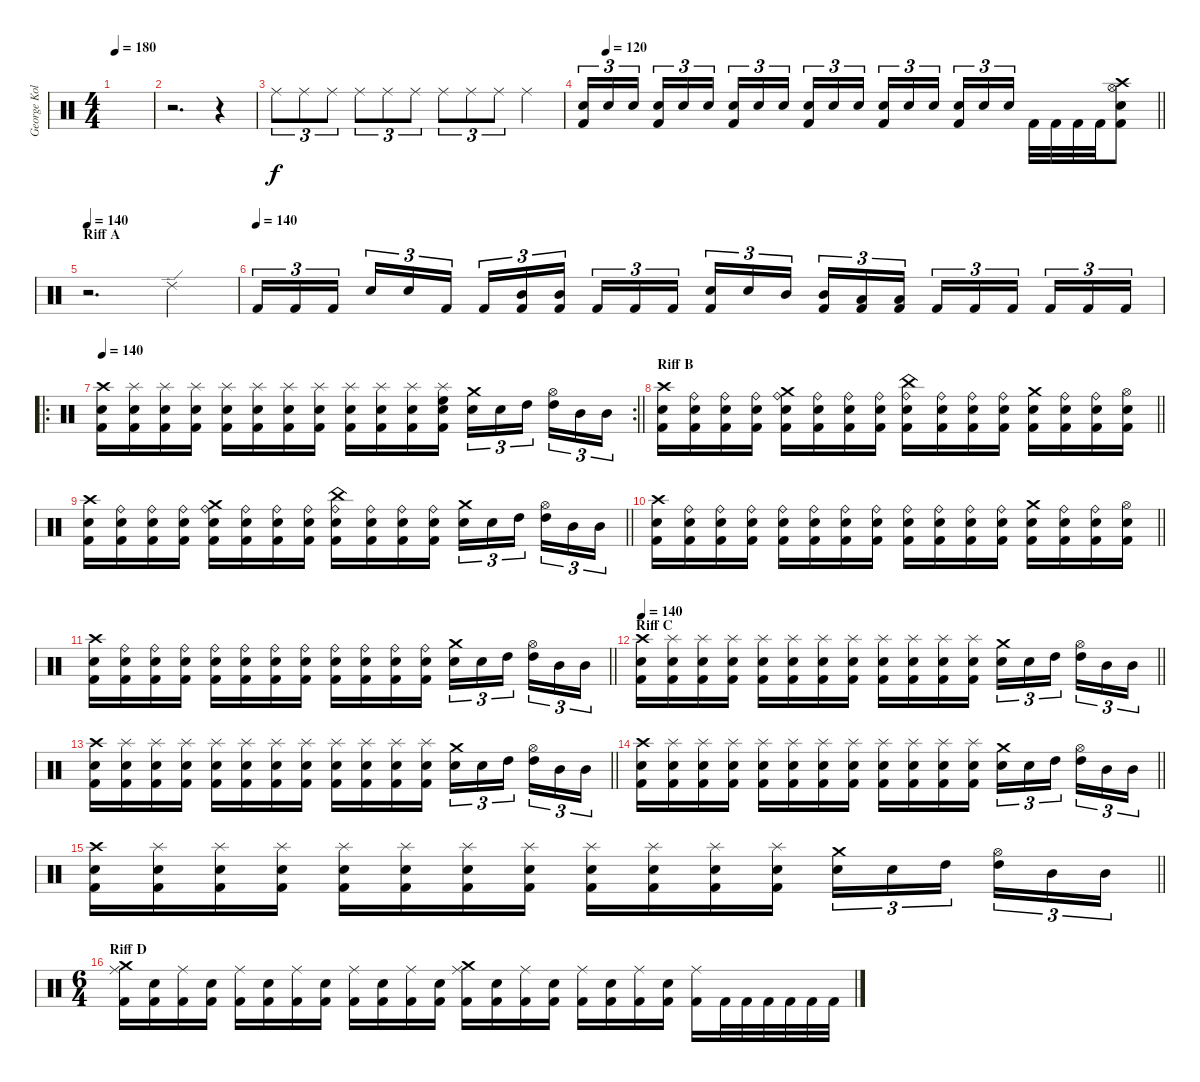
\track ("George Kollias [Equill]" "George Kol") {instrument percussion}
\staff {score}
\articulation defaults
\ts (4 4)
\tempo 180
\clef neutral
\ks c
|
r.2{d} r.4{volume 0} |
"Ride (middle)".8{tu (3 2) volume 15} "Ride (middle)".8{tu (3 2)} "Ride (middle)".8{tu (3 2)} "Ride (middle)".8{tu (3 2)} "Ride (middle)".8{tu (3 2)} "Ride (middle)".8{tu (3 2)} "Ride (middle)".8{tu (3 2)} "Ride (middle)".8{tu (3 2)} "Ride (middle)".8{tu (3 2)} "Ride (middle)".4 |
\tempo (120 0.041666666666666664)
\barLineRight lightlight
("Electric Snare (hit)" "Kick (hit) 2").16{tu (3 2)} "Electric Snare (hit)".16{tu (3 2)} "Electric Snare (hit)".16{tu (3 2) beam splitsecondary} ("Electric Snare (hit)" "Kick (hit) 2").16{tu (3 2)} "Electric Snare (hit)".16{tu (3 2)} "Electric Snare (hit)".16{tu (3 2)} ("Snare (hit) 2" "Kick (hit) 2").16{tu (3 2)} "Snare (hit) 2".16{tu (3 2)} "Snare (hit) 2".16{tu (3 2) beam splitsecondary} ("Electric Snare (hit)" "Kick (hit) 2").16{tu (3 2)} "Electric Snare (hit)".16{tu (3 2)} "Electric Snare (hit)".16{tu (3 2)} ("Snare (hit) 2" "Kick (hit) 2").16{tu (3 2)} "Snare (hit) 2".16{tu (3 2)} "Snare (hit) 2".16{tu (3 2) beam splitsecondary} ("Electric Snare (hit)" "Kick (hit) 2").16{tu (3 2)} "Electric Snare (hit)".16{tu (3 2)} "Electric Snare (hit)".16{tu (3 2)} "Kick (hit) 2".32 "Kick (hit) 2".32 "Kick (hit) 2".32 "Kick (hit) 2".32 ("Crash high (hit)" "Hi-Hat (open)" "Electric Snare (hit)" "Kick (hit) 2").8 |
\section ("" "Riff A")
\tempo 140
r.2{d} "Ride (edge) 2".4 |
\tempo (140)
"Kick (hit) 2".16{tu (3 2)} "Kick (hit) 2".16{tu (3 2)} "Kick (hit) 2".16{tu (3 2) beam splitsecondary} "Electric Snare (hit)".16{tu (3 2)} "Electric Snare (hit)".16{tu (3 2)} "Kick (hit) 2".16{tu (3 2)} "Kick (hit) 2".16{tu (3 2)} ("Mid Tom (hit)" "Kick (hit) 2").16{tu (3 2)} ("Mid Tom (hit)" "Kick (hit) 2").16{tu (3 2) beam splitsecondary} "Kick (hit) 2".16{tu (3 2)} "Kick (hit) 2".16{tu (3 2)} "Kick (hit) 2".16{tu (3 2)} ("Electric Snare (hit)" "Kick (hit) 2").16{tu (3 2)} "Electric Snare (hit)".16{tu (3 2)} "Mid Tom (hit)".16{tu (3 2) beam splitsecondary} ("Mid Tom (hit)" "Kick (hit) 2").16{tu (3 2)} ("Low Tom (hit)" "Kick (hit) 2").16{tu (3 2)} ("Low Tom (hit)" "Kick (hit) 2").16{tu (3 2)} "Kick (hit) 2".16{tu (3 2)} "Kick (hit) 2".16{tu (3 2)} "Kick (hit) 2".16{tu (3 2) beam splitsecondary} "Kick (hit) 2".16{tu (3 2)} "Kick (hit) 2".16{tu (3 2)} "Kick (hit) 2".16{tu (3 2)} |
\ro
\rc 2
\tempo 140
\barLineRight lightlight
("Crash high (hit)" "Electric Snare (hit)" "Kick (hit) 2").16 ("Splash (hit)" "Electric Snare (hit)" "Kick (hit) 2").16 ("Splash (hit)" "Electric Snare (hit)" "Kick (hit) 2").16 ("Splash (hit)" "Electric Snare (hit)" "Kick (hit) 2").16 ("Splash (hit)" "Electric Snare (hit)" "Kick (hit) 2").16 ("Splash (hit)" "Electric Snare (hit)" "Kick (hit) 2").16 ("Splash (hit)" "Electric Snare (hit)" "Kick (hit) 2").16 ("Splash (hit)" "Electric Snare (hit)" "Kick (hit) 2").16 ("Splash (hit)" "Electric Snare (hit)" "Kick (hit) 2").16 ("Splash (hit)" "Electric Snare (hit)" "Kick (hit) 2").16 ("Splash (hit)" "Electric Snare (hit)" "Kick (hit) 2").16 ("High Floor Tom (hit)" "Splash (hit)" "Electric Snare (hit)" "Kick (hit) 2").16 ("Crash medium (hit)" "Electric Snare (hit)").16{tu (3 2)} "Electric Snare (hit)".16{tu (3 2)} "High Tom (hit)".16{tu (3 2) beam splitsecondary} ("Hi-Hat (open)" "High Tom (hit)").16{tu (3 2)} "Mid Tom (hit)".16{tu (3 2)} "Mid Tom (hit)".16{tu (3 2)} |
\section ("" "Riff B")
\barLineRight lightlight
("Crash high (hit)" "Electric Snare (hit)" "Kick (hit) 2").16 ("Ride (bell)" "Electric Snare (hit)" "Kick (hit) 2").16 ("Ride (bell)" "Electric Snare (hit)" "Kick (hit) 2").16 ("Ride (bell)" "Electric Snare (hit)" "Kick (hit) 2").16 ("Crash medium (hit)" "Ride (bell)" "Electric Snare (hit)" "Kick (hit) 2").16 ("Ride (bell)" "Electric Snare (hit)" "Kick (hit) 2").16 ("Ride (bell)" "Electric Snare (hit)" "Kick (hit) 2").16 ("Ride (bell)" "Electric Snare (hit)" "Kick (hit) 2").16 ("China (hit)" "Ride (bell)" "Electric Snare (hit)" "Kick (hit) 2").16 ("Ride (bell)" "Electric Snare (hit)" "Kick (hit) 2").16 ("Ride (bell)" "Electric Snare (hit)" "Kick (hit) 2").16 ("Ride (bell)" "Electric Snare (hit)" "Kick (hit) 2").16 ("Crash medium (hit)" "Electric Snare (hit)" "Kick (hit) 2").16 ("Ride (bell)" "Electric Snare (hit)" "Kick (hit) 2").16 ("Ride (bell)" "Electric Snare (hit)" "Kick (hit) 2").16 ("Hi-Hat (open)" "Electric Snare (hit)" "Kick (hit) 2").16 |
\barLineRight lightlight
("Crash high (hit)" "Electric Snare (hit)" "Kick (hit) 2").16 ("Ride (bell)" "Electric Snare (hit)" "Kick (hit) 2").16 ("Ride (bell)" "Electric Snare (hit)" "Kick (hit) 2").16 ("Ride (bell)" "Electric Snare (hit)" "Kick (hit) 2").16 ("Crash medium (hit)" "Ride (bell)" "Electric Snare (hit)" "Kick (hit) 2").16 ("Ride (bell)" "Electric Snare (hit)" "Kick (hit) 2").16 ("Ride (bell)" "Electric Snare (hit)" "Kick (hit) 2").16 ("Ride (bell)" "Electric Snare (hit)" "Kick (hit) 2").16 ("China (hit)" "Ride (bell)" "Electric Snare (hit)" "Kick (hit) 2").16 ("Ride (bell)" "Electric Snare (hit)" "Kick (hit) 2").16 ("Ride (bell)" "Electric Snare (hit)" "Kick (hit) 2").16 ("Ride (bell)" "Electric Snare (hit)" "Kick (hit) 2").16 ("Crash medium (hit)" "Electric Snare (hit)").16{tu (3 2)} "Electric Snare (hit)".16{tu (3 2)} "High Tom (hit)".16{tu (3 2) beam splitsecondary} ("Hi-Hat (open)" "High Tom (hit)").16{tu (3 2)} "Mid Tom (hit)".16{tu (3 2)} "Mid Tom (hit)".16{tu (3 2)} |
\barLineRight lightlight
("Crash high (hit)" "Electric Snare (hit)" "Kick (hit) 2").16 ("Ride (bell)" "Electric Snare (hit)" "Kick (hit) 2").16 ("Ride (bell)" "Electric Snare (hit)" "Kick (hit) 2").16 ("Ride (bell)" "Electric Snare (hit)" "Kick (hit) 2").16 ("Ride (bell)" "Electric Snare (hit)" "Kick (hit) 2").16 ("Ride (bell)" "Electric Snare (hit)" "Kick (hit) 2").16 ("Ride (bell)" "Electric Snare (hit)" "Kick (hit) 2").16 ("Ride (bell)" "Electric Snare (hit)" "Kick (hit) 2").16 ("Ride (bell)" "Electric Snare (hit)" "Kick (hit) 2").16 ("Ride (bell)" "Electric Snare (hit)" "Kick (hit) 2").16 ("Ride (bell)" "Electric Snare (hit)" "Kick (hit) 2").16 ("Ride (bell)" "Electric Snare (hit)" "Kick (hit) 2").16 ("Crash medium (hit)" "Electric Snare (hit)" "Kick (hit) 2").16 ("Ride (bell)" "Electric Snare (hit)" "Kick (hit) 2").16 ("Ride (bell)" "Electric Snare (hit)" "Kick (hit) 2").16 ("Hi-Hat (open)" "Electric Snare (hit)" "Kick (hit) 2").16 |
\barLineRight lightlight
("Crash high (hit)" "Electric Snare (hit)" "Kick (hit) 2").16 ("Ride (bell)" "Electric Snare (hit)" "Kick (hit) 2").16 ("Ride (bell)" "Electric Snare (hit)" "Kick (hit) 2").16 ("Ride (bell)" "Electric Snare (hit)" "Kick (hit) 2").16 ("Ride (bell)" "Electric Snare (hit)" "Kick (hit) 2").16 ("Ride (bell)" "Electric Snare (hit)" "Kick (hit) 2").16 ("Ride (bell)" "Electric Snare (hit)" "Kick (hit) 2").16 ("Ride (bell)" "Electric Snare (hit)" "Kick (hit) 2").16 ("Ride (bell)" "Electric Snare (hit)" "Kick (hit) 2").16 ("Ride (bell)" "Electric Snare (hit)" "Kick (hit) 2").16 ("Ride (bell)" "Electric Snare (hit)" "Kick (hit) 2").16 ("Ride (bell)" "Electric Snare (hit)" "Kick (hit) 2").16 ("Crash medium (hit)" "Electric Snare (hit)").16{tu (3 2)} "Electric Snare (hit)".16{tu (3 2)} "High Tom (hit)".16{tu (3 2) beam splitsecondary} ("Hi-Hat (open)" "High Tom (hit)").16{tu (3 2)} "Mid Tom (hit)".16{tu (3 2)} "Mid Tom (hit)".16{tu (3 2)} |
\section ("" "Riff C")
\tempo 140
\barLineRight lightlight
("Crash high (hit)" "Electric Snare (hit)" "Kick (hit) 2").16 ("Splash (hit)" "Electric Snare (hit)" "Kick (hit) 2").16 ("Splash (hit)" "Electric Snare (hit)" "Kick (hit) 2").16 ("Splash (hit)" "Electric Snare (hit)" "Kick (hit) 2").16 ("Splash (hit)" "Electric Snare (hit)" "Kick (hit) 2").16 ("Splash (hit)" "Electric Snare (hit)" "Kick (hit) 2").16 ("Splash (hit)" "Electric Snare (hit)" "Kick (hit) 2").16 ("Splash (hit)" "Electric Snare (hit)" "Kick (hit) 2").16 ("Splash (hit)" "Electric Snare (hit)" "Kick (hit) 2").16 ("Splash (hit)" "Electric Snare (hit)" "Kick (hit) 2").16 ("Splash (hit)" "Electric Snare (hit)" "Kick (hit) 2").16 ("Splash (hit)" "Electric Snare (hit)" "Kick (hit) 2").16 ("Crash medium (hit)" "Electric Snare (hit)").16{tu (3 2)} "Electric Snare (hit)".16{tu (3 2)} "High Tom (hit)".16{tu (3 2) beam splitsecondary} ("Hi-Hat (open)" "High Tom (hit)").16{tu (3 2)} "Mid Tom (hit)".16{tu (3 2)} "Mid Tom (hit)".16{tu (3 2)} |
\barLineRight lightlight
("Crash high (hit)" "Electric Snare (hit)" "Kick (hit) 2").16 ("Splash (hit)" "Electric Snare (hit)" "Kick (hit) 2").16 ("Splash (hit)" "Electric Snare (hit)" "Kick (hit) 2").16 ("Splash (hit)" "Electric Snare (hit)" "Kick (hit) 2").16 ("Splash (hit)" "Electric Snare (hit)" "Kick (hit) 2").16 ("Splash (hit)" "Electric Snare (hit)" "Kick (hit) 2").16 ("Splash (hit)" "Electric Snare (hit)" "Kick (hit) 2").16 ("Splash (hit)" "Electric Snare (hit)" "Kick (hit) 2").16 ("Splash (hit)" "Electric Snare (hit)" "Kick (hit) 2").16 ("Splash (hit)" "Electric Snare (hit)" "Kick (hit) 2").16 ("Splash (hit)" "Electric Snare (hit)" "Kick (hit) 2").16 ("Splash (hit)" "Electric Snare (hit)" "Kick (hit) 2").16 ("Crash medium (hit)" "Electric Snare (hit)").16{tu (3 2)} "Electric Snare (hit)".16{tu (3 2)} "High Tom (hit)".16{tu (3 2) beam splitsecondary} ("Hi-Hat (open)" "High Tom (hit)").16{tu (3 2)} "Mid Tom (hit)".16{tu (3 2)} "Mid Tom (hit)".16{tu (3 2)} |
\barLineRight lightlight
("Crash high (hit)" "Electric Snare (hit)" "Kick (hit) 2").16 ("Splash (hit)" "Electric Snare (hit)" "Kick (hit) 2").16 ("Splash (hit)" "Electric Snare (hit)" "Kick (hit) 2").16 ("Splash (hit)" "Electric Snare (hit)" "Kick (hit) 2").16 ("Splash (hit)" "Electric Snare (hit)" "Kick (hit) 2").16 ("Splash (hit)" "Electric Snare (hit)" "Kick (hit) 2").16 ("Splash (hit)" "Electric Snare (hit)" "Kick (hit) 2").16 ("Splash (hit)" "Electric Snare (hit)" "Kick (hit) 2").16 ("Splash (hit)" "Electric Snare (hit)" "Kick (hit) 2").16 ("Splash (hit)" "Electric Snare (hit)" "Kick (hit) 2").16 ("Splash (hit)" "Electric Snare (hit)" "Kick (hit) 2").16 ("Splash (hit)" "Electric Snare (hit)" "Kick (hit) 2").16 ("Crash medium (hit)" "Electric Snare (hit)").16{tu (3 2)} "Electric Snare (hit)".16{tu (3 2)} "High Tom (hit)".16{tu (3 2) beam splitsecondary} ("Hi-Hat (open)" "High Tom (hit)").16{tu (3 2)} "Mid Tom (hit)".16{tu (3 2)} "Mid Tom (hit)".16{tu (3 2)} |
\barLineRight lightlight
("Crash high (hit)" "Electric Snare (hit)" "Kick (hit) 2").16 ("Splash (hit)" "Electric Snare (hit)" "Kick (hit) 2").16 ("Splash (hit)" "Electric Snare (hit)" "Kick (hit) 2").16 ("Splash (hit)" "Electric Snare (hit)" "Kick (hit) 2").16 ("Splash (hit)" "Electric Snare (hit)" "Kick (hit) 2").16 ("Splash (hit)" "Electric Snare (hit)" "Kick (hit) 2").16 ("Splash (hit)" "Electric Snare (hit)" "Kick (hit) 2").16 ("Splash (hit)" "Electric Snare (hit)" "Kick (hit) 2").16 ("Splash (hit)" "Electric Snare (hit)" "Kick (hit) 2").16 ("Splash (hit)" "Electric Snare (hit)" "Kick (hit) 2").16 ("Splash (hit)" "Electric Snare (hit)" "Kick (hit) 2").16 ("Splash (hit)" "Electric Snare (hit)" "Kick (hit) 2").16 ("Crash medium (hit)" "Electric Snare (hit)").16{tu (3 2)} "Electric Snare (hit)".16{tu (3 2)} "High Tom (hit)".16{tu (3 2) beam splitsecondary} ("Hi-Hat (open)" "High Tom (hit)").16{tu (3 2)} "Mid Tom (hit)".16{tu (3 2)} "Mid Tom (hit)".16{tu (3 2)} |
\ts (6 4)
\section ("" "Riff D")
("Crash medium (hit)" "Ride (middle)" "Kick (hit) 2").16 ("Electric Snare (hit)" "Kick (hit) 2").16 ("Ride (middle)" "Kick (hit) 2").16 ("Electric Snare (hit)" "Kick (hit) 2").16 ("Ride (middle)" "Kick (hit) 2").16 ("Electric Snare (hit)" "Kick (hit) 2").16 ("Ride (middle)" "Kick (hit) 2").16 ("Electric Snare (hit)" "Kick (hit) 2").16 ("Ride (middle)" "Kick (hit) 2").16 ("Electric Snare (hit)" "Kick (hit) 2").16 ("Ride (middle)" "Kick (hit) 2").16 ("Electric Snare (hit)" "Kick (hit) 2").16 ("Crash medium (hit)" "Ride (middle)" "Kick (hit) 2").16 ("Electric Snare (hit)" "Kick (hit) 2").16 ("Ride (middle)" "Kick (hit) 2").16 ("Electric Snare (hit)" "Kick (hit) 2").16 ("Ride (middle)" "Kick (hit) 2").16 ("Electric Snare (hit)" "Kick (hit) 2").16 ("Ride (middle)" "Kick (hit) 2").16 ("Electric Snare (hit)" "Kick (hit) 2").16 ("Ride (middle)" "Kick (hit) 2").16 "Kick (hit) 2".32 "Kick (hit) 2".32 "Kick (hit) 2".32 "Kick (hit) 2".32 "Kick (hit) 2".32 "Kick (hit) 2".32
